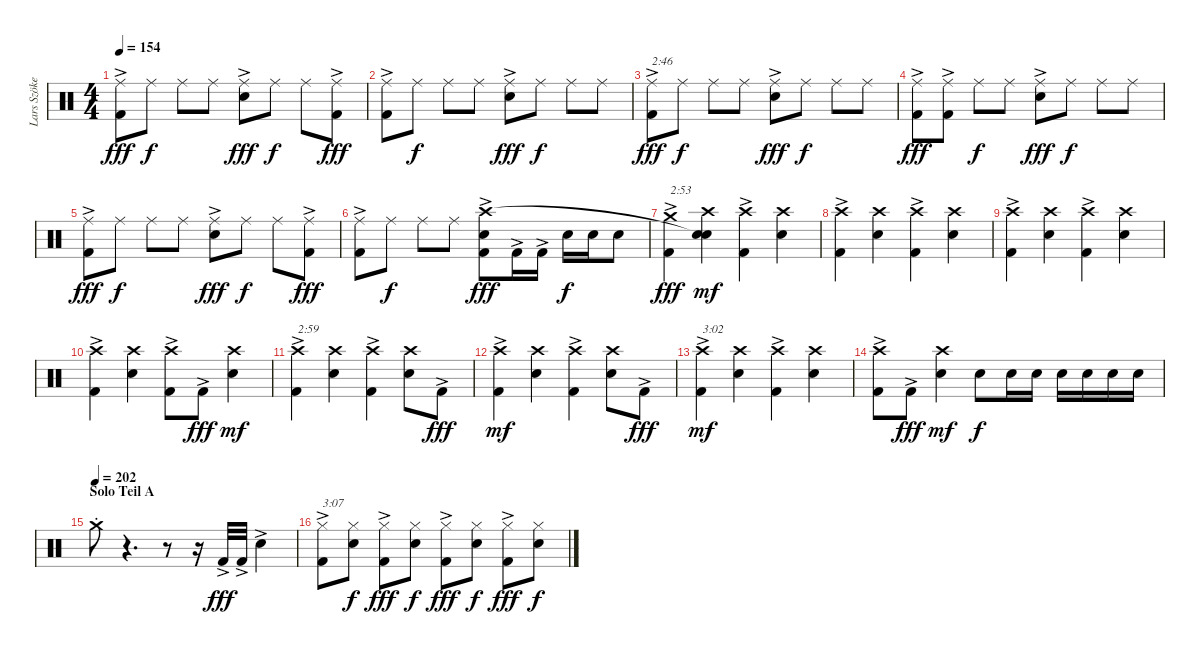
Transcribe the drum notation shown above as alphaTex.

\track ("Lars Szöke" "Lars Szöke") {instrument percussion}
\staff {score}
\articulation defaults
\ts (4 4)
\tempo 154
\clef neutral
\ks c
("Kick (hit) 2"{ac} "Ride (middle)").8{dy fff} "Ride (middle)".8{dy f} "Ride (middle)".8 "Ride (middle)".8 ("Snare (hit) 2"{ac} "Ride (middle)").8{dy fff} "Ride (middle)".8{dy f} "Ride (middle)".8 ("Kick (hit) 2"{ac} "Ride (middle)").8{dy fff} |
("Kick (hit) 2"{ac} "Ride (middle)").8 "Ride (middle)".8{dy f} "Ride (middle)".8 "Ride (middle)".8 ("Snare (hit) 2"{ac} "Ride (middle)").8{dy fff} "Ride (middle)".8{dy f} "Ride (middle)".8 "Ride (middle)".8 |
("Kick (hit) 2"{ac} "Ride (middle)").8{txt "2:46" dy fff} "Ride (middle)".8{dy f} "Ride (middle)".8 "Ride (middle)".8 ("Snare (hit) 2"{ac} "Ride (middle)").8{dy fff} "Ride (middle)".8{dy f} "Ride (middle)".8 "Ride (middle)".8 |
("Kick (hit) 2"{ac} "Ride (middle)").8{dy fff} ("Kick (hit) 2"{ac} "Ride (middle)").8 "Ride (middle)".8{dy f} "Ride (middle)".8 ("Snare (hit) 2"{ac} "Ride (middle)").8{dy fff} "Ride (middle)".8{dy f} "Ride (middle)".8 "Ride (middle)".8 |
("Kick (hit) 2"{ac} "Ride (middle)").8{dy fff} "Ride (middle)".8{dy f} "Ride (middle)".8 "Ride (middle)".8 ("Snare (hit) 2"{ac} "Ride (middle)").8{dy fff} "Ride (middle)".8{dy f} "Ride (middle)".8 ("Kick (hit) 2"{ac} "Ride (middle)").8{dy fff} |
("Kick (hit) 2"{ac} "Ride (middle)").8 "Ride (middle)".8{dy f} "Ride (middle)".8 "Ride (middle)".8 ("Kick (hit) 2"{ac} "Snare (hit) 2"{ac} "Crash high (hit)"{ac}).8{dy fff} "Kick (hit) 2"{ac}.16 "Kick (hit) 2"{ac}.16 "Snare (hit) 2".16{dy f} "Snare (hit) 2".16 "Snare (hit) 2".8 |
("Kick (hit) 2"{ac} "Crash medium (hit)"{ac}).4{txt "2:53" dy fff} ("Snare (hit) 2" "Crash high (hit)" "Snare (hit)"{t}).4{dy mf} ("Kick (hit) 2"{ac} "Crash high (hit)").4 ("Snare (hit) 2" "Crash high (hit)").4 |
("Kick (hit) 2"{ac} "Crash high (hit)").4 ("Snare (hit) 2" "Crash high (hit)").4 ("Kick (hit) 2"{ac} "Crash high (hit)").4 ("Snare (hit) 2" "Crash high (hit)").4 |
("Kick (hit) 2"{ac} "Crash high (hit)").4 ("Snare (hit) 2" "Crash high (hit)").4 ("Kick (hit) 2"{ac} "Crash high (hit)").4 ("Snare (hit) 2" "Crash high (hit)").4 |
("Kick (hit) 2"{ac} "Crash high (hit)").4 ("Snare (hit) 2" "Crash high (hit)").4 ("Kick (hit) 2"{ac} "Crash high (hit)").8 "Kick (hit) 2"{ac}.8{dy fff} ("Snare (hit) 2" "Crash high (hit)").4{dy mf} |
("Kick (hit) 2"{ac} "Crash high (hit)").4{txt "2:59"} ("Snare (hit) 2" "Crash high (hit)").4 ("Kick (hit) 2"{ac} "Crash high (hit)").4 ("Snare (hit) 2" "Crash high (hit)").8 "Kick (hit) 2"{ac}.8{dy fff} |
("Kick (hit) 2"{ac} "Crash high (hit)").4{dy mf} ("Snare (hit) 2" "Crash high (hit)").4 ("Kick (hit) 2"{ac} "Crash high (hit)").4 ("Snare (hit) 2" "Crash high (hit)").8 "Kick (hit) 2"{ac}.8{dy fff} |
("Kick (hit) 2"{ac} "Crash high (hit)").4{txt "3:02" dy mf} ("Snare (hit) 2" "Crash high (hit)").4 ("Kick (hit) 2"{ac} "Crash high (hit)").4 ("Snare (hit) 2" "Crash high (hit)").4 |
("Kick (hit) 2"{ac} "Crash high (hit)").8 "Kick (hit) 2"{ac}.8{dy fff} ("Snare (hit) 2" "Crash high (hit)").4{dy mf} "Snare (hit) 2".8{dy f} "Snare (hit) 2".16 "Snare (hit) 2".16 "Snare (hit) 2".16 "Snare (hit) 2".16 "Snare (hit) 2".16 "Snare (hit) 2".16 |
\section ("" "Solo Teil A")
\tempo (202)
"Crash medium (hit)"{st}.8 r.4{d volume 0} r.8 r.16 "Kick (hit) 2"{ac}.32{dy fff volume 16} "Kick (hit) 2"{ac}.32 "Snare (hit) 2"{ac}.4 |
("Kick (hit) 2"{ac} "Hi-Hat (closed)").8{txt "3:07"} ("Snare (hit) 2" "Hi-Hat (closed)").8{dy f} ("Kick (hit) 2"{ac} "Hi-Hat (closed)").8{dy fff} ("Snare (hit) 2" "Hi-Hat (closed)").8{dy f} ("Kick (hit) 2"{ac} "Hi-Hat (closed)").8{dy fff} ("Snare (hit) 2" "Hi-Hat (closed)").8{dy f} ("Kick (hit) 2"{ac} "Hi-Hat (closed)").8{dy fff} ("Snare (hit) 2" "Hi-Hat (closed)").8{dy f}
